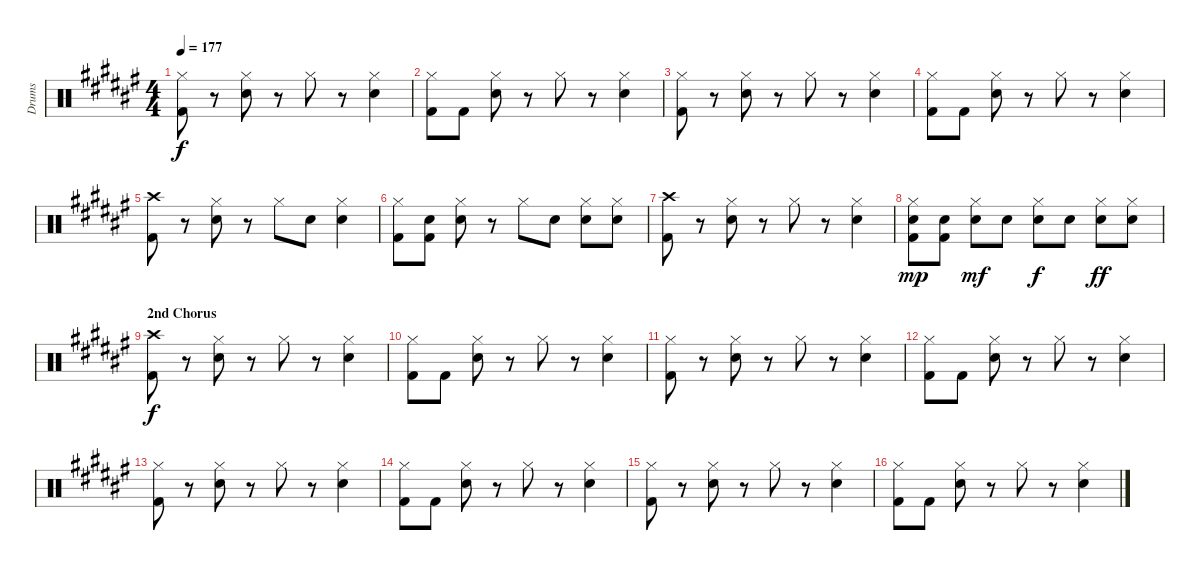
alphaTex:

\track ("Drums" "Drums") {instrument percussion}
\staff {score}
\articulation defaults
\ts (4 4)
\tempo 177
\clef neutral
\ks d#minor
("Hi-Hat (closed)" "Kick (hit) 2").8{dy f} r.8 ("Hi-Hat (closed)" "Snare (hit) 2").8 r.8 "Hi-Hat (closed)".8 r.8 ("Hi-Hat (closed)" "Snare (hit) 2").4 |
("Hi-Hat (closed)" "Kick (hit) 2").8 "Kick (hit) 2".8 ("Hi-Hat (closed)" "Snare (hit) 2").8 r.8 "Hi-Hat (closed)".8 r.8 ("Hi-Hat (closed)" "Snare (hit) 2").4 |
("Hi-Hat (closed)" "Kick (hit) 2").8 r.8 ("Hi-Hat (closed)" "Snare (hit) 2").8 r.8 "Hi-Hat (closed)".8 r.8 ("Hi-Hat (closed)" "Snare (hit) 2").4 |
("Hi-Hat (closed)" "Kick (hit) 2").8 "Kick (hit) 2".8 ("Hi-Hat (closed)" "Snare (hit) 2").8 r.8 "Hi-Hat (closed)".8 r.8 ("Hi-Hat (closed)" "Snare (hit) 2").4 |
("Crash high (hit)" "Kick (hit) 2").8 r.8 ("Hi-Hat (closed)" "Snare (hit) 2").8 r.8 "Hi-Hat (closed)".8 "Snare (hit) 2".8 ("Hi-Hat (closed)" "Snare (hit) 2").4 |
("Hi-Hat (closed)" "Kick (hit) 2").8 ("Snare (hit) 2" "Kick (hit) 2").8 ("Hi-Hat (closed)" "Snare (hit) 2").8 r.8 "Hi-Hat (closed)".8 "Snare (hit) 2".8 ("Hi-Hat (closed)" "Snare (hit) 2").8 ("Hi-Hat (closed)" "Snare (hit) 2").8 |
("Crash high (hit)" "Kick (hit) 2").8 r.8 ("Hi-Hat (closed)" "Snare (hit) 2").8 r.8 "Hi-Hat (closed)".8 r.8 ("Hi-Hat (closed)" "Snare (hit) 2").4 |
("Hi-Hat (closed)" "Snare (hit) 2" "Kick (hit) 2").8{dy mp} ("Snare (hit) 2" "Kick (hit) 2").8 ("Hi-Hat (closed)" "Snare (hit) 2").8{dy mf} "Snare (hit) 2".8 ("Hi-Hat (closed)" "Snare (hit) 2").8{dy f} "Snare (hit) 2".8 ("Hi-Hat (closed)" "Snare (hit) 2").8{dy ff} ("Hi-Hat (closed)" "Snare (hit) 2").8 |
\section ("" "2nd Chorus")
("Crash high (hit)" "Kick (hit) 2").8{dy f} r.8 ("Hi-Hat (closed)" "Snare (hit) 2").8 r.8 "Hi-Hat (closed)".8 r.8 ("Hi-Hat (closed)" "Snare (hit) 2").4 |
("Hi-Hat (closed)" "Kick (hit) 2").8 "Kick (hit) 2".8 ("Hi-Hat (closed)" "Snare (hit) 2").8 r.8 "Hi-Hat (closed)".8 r.8 ("Hi-Hat (closed)" "Snare (hit) 2").4 |
("Hi-Hat (closed)" "Kick (hit) 2").8 r.8 ("Hi-Hat (closed)" "Snare (hit) 2").8 r.8 "Hi-Hat (closed)".8 r.8 ("Hi-Hat (closed)" "Snare (hit) 2").4 |
("Hi-Hat (closed)" "Kick (hit) 2").8 "Kick (hit) 2".8 ("Hi-Hat (closed)" "Snare (hit) 2").8 r.8 "Hi-Hat (closed)".8 r.8 ("Hi-Hat (closed)" "Snare (hit) 2").4 |
("Hi-Hat (closed)" "Kick (hit) 2").8 r.8 ("Hi-Hat (closed)" "Snare (hit) 2").8 r.8 "Hi-Hat (closed)".8 r.8 ("Hi-Hat (closed)" "Snare (hit) 2").4 |
("Hi-Hat (closed)" "Kick (hit) 2").8 "Kick (hit) 2".8 ("Hi-Hat (closed)" "Snare (hit) 2").8 r.8 "Hi-Hat (closed)".8 r.8 ("Hi-Hat (closed)" "Snare (hit) 2").4 |
("Hi-Hat (closed)" "Kick (hit) 2").8 r.8 ("Hi-Hat (closed)" "Snare (hit) 2").8 r.8 "Hi-Hat (closed)".8 r.8 ("Hi-Hat (closed)" "Snare (hit) 2").4 |
("Hi-Hat (closed)" "Kick (hit) 2").8 "Kick (hit) 2".8 ("Hi-Hat (closed)" "Snare (hit) 2").8 r.8 "Hi-Hat (closed)".8 r.8 ("Hi-Hat (closed)" "Snare (hit) 2").4
